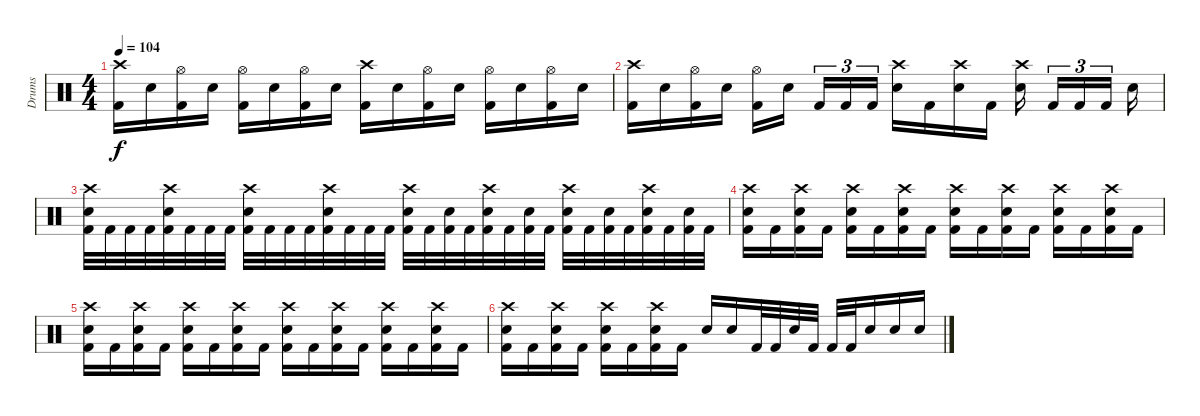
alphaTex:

\track ("Drums" "Drums") {instrument percussion}
\staff {score}
\articulation defaults
\ts (4 4)
\tempo 104
\clef neutral
\ks c
("Crash high (hit)" "Kick (hit) 2").16{dy f} "Snare (hit) 2".16 ("Hi-Hat (open)" "Kick (hit) 2").16 "Snare (hit) 2".16 ("Hi-Hat (open)" "Kick (hit) 2").16 "Snare (hit) 2".16 ("Hi-Hat (open)" "Kick (hit) 2").16 "Snare (hit) 2".16 ("Crash high (hit)" "Kick (hit) 2").16 "Snare (hit) 2".16 ("Hi-Hat (open)" "Kick (hit) 2").16 "Snare (hit) 2".16 ("Hi-Hat (open)" "Kick (hit) 2").16 "Snare (hit) 2".16 ("Hi-Hat (open)" "Kick (hit) 2").16 "Snare (hit) 2".16 |
("Crash high (hit)" "Kick (hit) 2").16 "Snare (hit) 2".16 ("Hi-Hat (open)" "Kick (hit) 2").16 "Snare (hit) 2".16 ("Hi-Hat (open)" "Kick (hit) 2").16 "Snare (hit) 2".16{beam splitsecondary} "Kick (hit) 2".16{tu (3 2)} "Kick (hit) 2".16{tu (3 2)} "Kick (hit) 2".16{tu (3 2)} ("Crash high (hit)" "Snare (hit) 2").16 "Kick (hit) 2".16 ("Crash high (hit)" "Snare (hit) 2").16 "Kick (hit) 2".16 ("Crash high (hit)" "Snare (hit) 2").16{beam splitsecondary} "Kick (hit) 2".16{tu (3 2)} "Kick (hit) 2".16{tu (3 2)} "Kick (hit) 2".16{tu (3 2) beam splitsecondary} "Snare (hit) 2".16 |
("Crash high (hit)" "Snare (hit) 2" "Kick (hit) 2").32 "Kick (hit) 2".32 "Kick (hit) 2".32 "Kick (hit) 2".32 ("Crash high (hit)" "Snare (hit) 2" "Kick (hit) 2").32 "Kick (hit) 2".32 "Kick (hit) 2".32 "Kick (hit) 2".32 ("Crash high (hit)" "Snare (hit) 2" "Kick (hit) 2").32 "Kick (hit) 2".32 "Kick (hit) 2".32 "Kick (hit) 2".32 ("Crash high (hit)" "Snare (hit) 2" "Kick (hit) 2").32 "Kick (hit) 2".32 "Kick (hit) 2".32 "Kick (hit) 2".32 ("Crash high (hit)" "Snare (hit) 2" "Kick (hit) 2").32 "Kick (hit) 2".32 ("Snare (hit) 2" "Kick (hit) 2").32 "Kick (hit) 2".32 ("Crash high (hit)" "Snare (hit) 2" "Kick (hit) 2").32 "Kick (hit) 2".32 ("Snare (hit) 2" "Kick (hit) 2").32 "Kick (hit) 2".32 ("Crash high (hit)" "Snare (hit) 2" "Kick (hit) 2").32 "Kick (hit) 2".32 ("Snare (hit) 2" "Kick (hit) 2").32 "Kick (hit) 2".32 ("Crash high (hit)" "Snare (hit) 2" "Kick (hit) 2").32 "Kick (hit) 2".32 ("Snare (hit) 2" "Kick (hit) 2").32 "Kick (hit) 2".32 |
("Crash high (hit)" "Snare (hit) 2" "Kick (hit) 2").16 "Kick (hit) 2".16 ("Crash high (hit)" "Snare (hit) 2" "Kick (hit) 2").16 "Kick (hit) 2".16 ("Crash high (hit)" "Snare (hit) 2" "Kick (hit) 2").16 "Kick (hit) 2".16 ("Crash high (hit)" "Snare (hit) 2" "Kick (hit) 2").16 "Kick (hit) 2".16 ("Crash high (hit)" "Snare (hit) 2" "Kick (hit) 2").16 "Kick (hit) 2".16 ("Crash high (hit)" "Snare (hit) 2" "Kick (hit) 2").16 "Kick (hit) 2".16 ("Crash high (hit)" "Snare (hit) 2" "Kick (hit) 2").16 "Kick (hit) 2".16 ("Crash high (hit)" "Snare (hit) 2" "Kick (hit) 2").16 "Kick (hit) 2".16 |
("Crash high (hit)" "Snare (hit) 2" "Kick (hit) 2").16 "Kick (hit) 2".16 ("Crash high (hit)" "Snare (hit) 2" "Kick (hit) 2").16 "Kick (hit) 2".16 ("Crash high (hit)" "Snare (hit) 2" "Kick (hit) 2").16 "Kick (hit) 2".16 ("Crash high (hit)" "Snare (hit) 2" "Kick (hit) 2").16 "Kick (hit) 2".16 ("Crash high (hit)" "Snare (hit) 2" "Kick (hit) 2").16 "Kick (hit) 2".16 ("Crash high (hit)" "Snare (hit) 2" "Kick (hit) 2").16 "Kick (hit) 2".16 ("Crash high (hit)" "Snare (hit) 2" "Kick (hit) 2").16 "Kick (hit) 2".16 ("Crash high (hit)" "Snare (hit) 2" "Kick (hit) 2").16 "Kick (hit) 2".16 |
("Crash high (hit)" "Snare (hit) 2" "Kick (hit) 2").16 "Kick (hit) 2".16 ("Crash high (hit)" "Snare (hit) 2" "Kick (hit) 2").16 "Kick (hit) 2".16 ("Crash high (hit)" "Snare (hit) 2" "Kick (hit) 2").16 "Kick (hit) 2".16 ("Crash high (hit)" "Snare (hit) 2" "Kick (hit) 2").16 "Kick (hit) 2".16 "Snare (hit) 2".16 "Snare (hit) 2".16 "Kick (hit) 2".32 "Kick (hit) 2".32 "Snare (hit) 2".32 "Kick (hit) 2".32 "Kick (hit) 2".32 "Kick (hit) 2".32 "Snare (hit) 2".16 "Snare (hit) 2".16 "Snare (hit) 2".16
